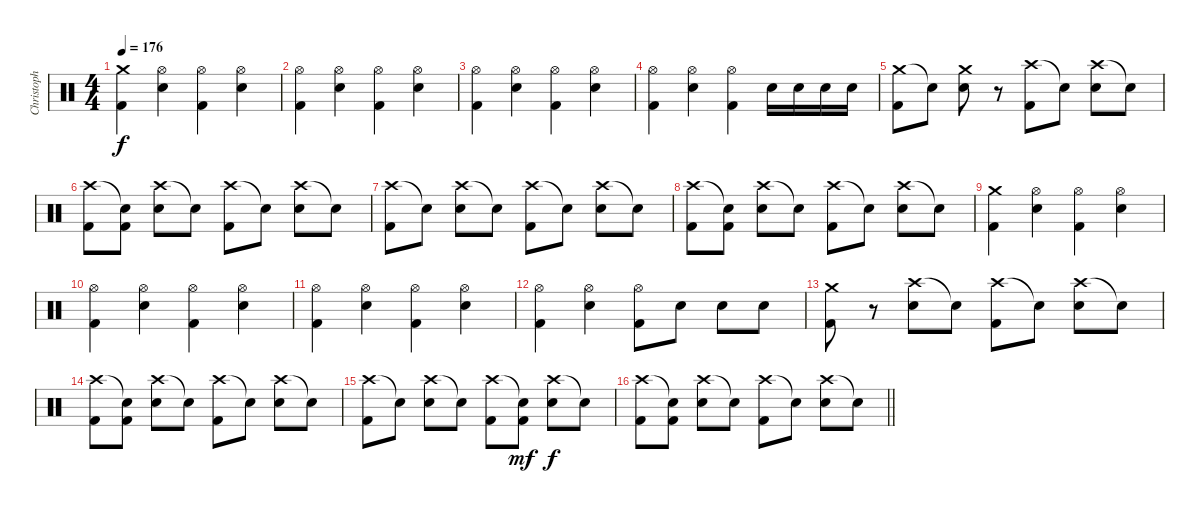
\track ("Christoph" "Christoph") {instrument percussion}
\staff {score}
\articulation defaults
\ts (4 4)
\tempo 176
\clef neutral
\ks c
("Crash medium (hit)" "Kick (hit) 2").4{dy f} ("Hi-Hat (open)" "Snare (hit) 2").4 ("Hi-Hat (open)" "Kick (hit) 2").4 ("Hi-Hat (open)" "Snare (hit) 2").4 |
("Hi-Hat (open)" "Kick (hit) 2").4 ("Hi-Hat (open)" "Snare (hit) 2").4 ("Hi-Hat (open)" "Kick (hit) 2").4 ("Hi-Hat (open)" "Snare (hit) 2").4 |
("Hi-Hat (open)" "Kick (hit) 2").4 ("Hi-Hat (open)" "Snare (hit) 2").4 ("Hi-Hat (open)" "Kick (hit) 2").4 ("Hi-Hat (open)" "Snare (hit) 2").4 |
("Hi-Hat (open)" "Kick (hit) 2").4 ("Hi-Hat (open)" "Snare (hit) 2").4 ("Hi-Hat (open)" "Kick (hit) 2").4 "Snare (hit) 2".16 "Snare (hit) 2".16 "Snare (hit) 2".16 "Snare (hit) 2".16 |
("Crash medium (hit)" "Kick (hit) 2").8 "Snare (hit)"{t}.8 ("Crash medium (hit)" "Snare (hit) 2").8 r.8 ("Crash high (hit)" "Kick (hit) 2").8 "Snare (hit)"{t}.8 ("Crash high (hit)" "Snare (hit) 2").8 "Snare (hit)"{t}.8 |
("Crash high (hit)" "Kick (hit) 2").8 ("Snare (hit)"{t} "Kick (hit) 2").8 ("Crash high (hit)" "Snare (hit) 2").8 "Snare (hit)"{t}.8 ("Crash high (hit)" "Kick (hit) 2").8 "Snare (hit)"{t}.8 ("Crash high (hit)" "Snare (hit) 2").8 "Snare (hit)"{t}.8 |
("Crash high (hit)" "Kick (hit) 2").8 "Snare (hit)"{t}.8 ("Crash high (hit)" "Snare (hit) 2").8 "Snare (hit)"{t}.8 ("Crash high (hit)" "Kick (hit) 2").8 "Snare (hit)"{t}.8 ("Crash high (hit)" "Snare (hit) 2").8 "Snare (hit)"{t}.8 |
("Crash high (hit)" "Kick (hit) 2").8 ("Snare (hit)"{t} "Kick (hit) 2").8 ("Crash high (hit)" "Snare (hit) 2").8 "Snare (hit)"{t}.8 ("Crash high (hit)" "Kick (hit) 2").8 "Snare (hit)"{t}.8 ("Crash high (hit)" "Snare (hit) 2").8 "Snare (hit)"{t}.8 |
("Crash medium (hit)" "Kick (hit) 2").4 ("Hi-Hat (open)" "Snare (hit) 2").4 ("Hi-Hat (open)" "Kick (hit) 2").4 ("Hi-Hat (open)" "Snare (hit) 2").4 |
("Hi-Hat (open)" "Kick (hit) 2").4 ("Hi-Hat (open)" "Snare (hit) 2").4 ("Hi-Hat (open)" "Kick (hit) 2").4 ("Hi-Hat (open)" "Snare (hit) 2").4 |
("Hi-Hat (open)" "Kick (hit) 2").4 ("Hi-Hat (open)" "Snare (hit) 2").4 ("Hi-Hat (open)" "Kick (hit) 2").4 ("Hi-Hat (open)" "Snare (hit) 2").4 |
("Hi-Hat (open)" "Kick (hit) 2").4 ("Hi-Hat (open)" "Snare (hit) 2").4 ("Hi-Hat (open)" "Kick (hit) 2").8 "Snare (hit) 2".8 "Snare (hit) 2".8 "Snare (hit) 2".8 |
("Crash medium (hit)" "Kick (hit) 2").8 r.8 ("Crash high (hit)" "Snare (hit) 2").8 "Snare (hit)"{t}.8 ("Crash high (hit)" "Kick (hit) 2").8 "Snare (hit)"{t}.8 ("Crash high (hit)" "Snare (hit) 2").8 "Snare (hit)"{t}.8 |
("Crash high (hit)" "Kick (hit) 2").8 ("Snare (hit)"{t} "Kick (hit) 2").8 ("Crash high (hit)" "Snare (hit) 2").8 "Snare (hit)"{t}.8 ("Crash high (hit)" "Kick (hit) 2").8 "Snare (hit)"{t}.8 ("Crash high (hit)" "Snare (hit) 2").8 "Snare (hit)"{t}.8 |
("Crash high (hit)" "Kick (hit) 2").8 "Snare (hit)"{t}.8 ("Crash high (hit)" "Snare (hit) 2").8 "Snare (hit)"{t}.8 ("Crash high (hit)" "Kick (hit) 2").8 ("Snare (hit)"{t} "Kick (hit) 2").8{dy mf} ("Crash high (hit)" "Snare (hit) 2").8{dy f} "Snare (hit)"{t}.8 |
\barLineRight lightlight
("Crash high (hit)" "Kick (hit) 2").8 ("Snare (hit)"{t} "Kick (hit) 2").8 ("Crash high (hit)" "Snare (hit) 2").8 "Snare (hit)"{t}.8 ("Crash high (hit)" "Kick (hit) 2").8 "Snare (hit)"{t}.8 ("Crash high (hit)" "Snare (hit) 2").8 "Snare (hit)"{t}.8
